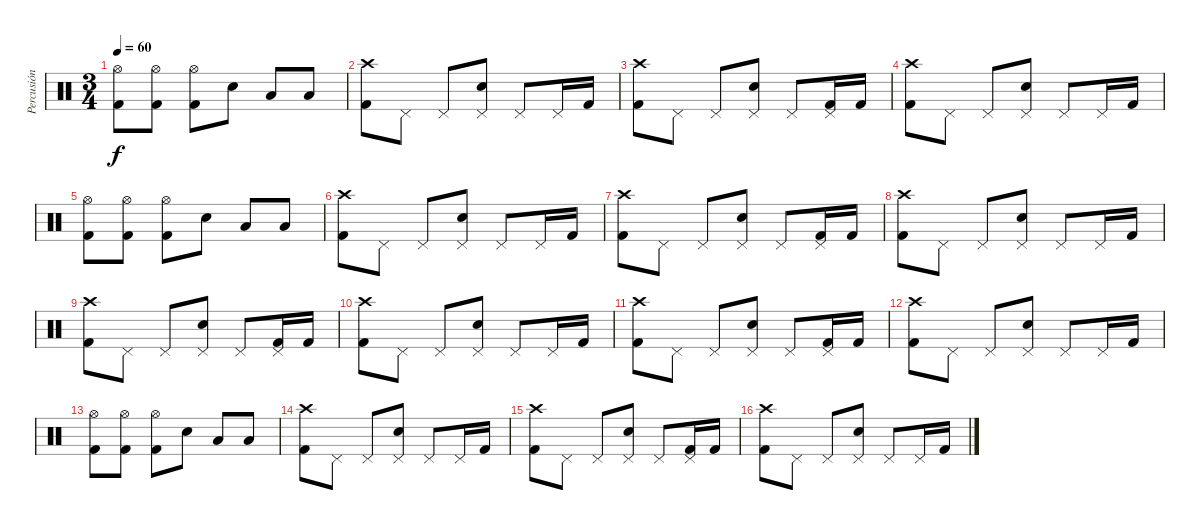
\track ("Percusión" "Percusión") {instrument percussion}
\staff {score}
\articulation defaults
\ts (3 4)
\tempo 60
\clef neutral
\ks c
("Hi-Hat (open)" "Kick (hit) 2").8{dy f} ("Hi-Hat (open)" "Kick (hit) 2").8 ("Hi-Hat (open)" "Kick (hit) 2").8 "Snare (hit) 2".8 "Low Tom (hit)".8 "Low Tom (hit)".8 |
("Kick (hit) 2" "Crash high (hit)").8 "Pedal Hi-Hat (hit)".8 "Pedal Hi-Hat (hit)".8 ("Pedal Hi-Hat (hit)" "Snare (hit) 2").8 "Pedal Hi-Hat (hit)".8 "Pedal Hi-Hat (hit)".16 "Kick (hit) 2".16 |
("Crash high (hit)" "Kick (hit) 2").8 "Pedal Hi-Hat (hit)".8 "Pedal Hi-Hat (hit)".8 ("Pedal Hi-Hat (hit)" "Snare (hit) 2").8 "Pedal Hi-Hat (hit)".8 ("Pedal Hi-Hat (hit)" "Kick (hit) 2").16 "Kick (hit) 2".16 |
("Kick (hit) 2" "Crash high (hit)").8 "Pedal Hi-Hat (hit)".8 "Pedal Hi-Hat (hit)".8 ("Pedal Hi-Hat (hit)" "Snare (hit) 2").8 "Pedal Hi-Hat (hit)".8 "Pedal Hi-Hat (hit)".16 "Kick (hit) 2".16 |
("Hi-Hat (open)" "Kick (hit) 2").8 ("Hi-Hat (open)" "Kick (hit) 2").8 ("Hi-Hat (open)" "Kick (hit) 2").8 "Snare (hit) 2".8 "Low Tom (hit)".8 "Low Tom (hit)".8 |
("Kick (hit) 2" "Crash high (hit)").8 "Pedal Hi-Hat (hit)".8 "Pedal Hi-Hat (hit)".8 ("Pedal Hi-Hat (hit)" "Snare (hit) 2").8 "Pedal Hi-Hat (hit)".8 "Pedal Hi-Hat (hit)".16 "Kick (hit) 2".16 |
("Crash high (hit)" "Kick (hit) 2").8 "Pedal Hi-Hat (hit)".8 "Pedal Hi-Hat (hit)".8 ("Pedal Hi-Hat (hit)" "Snare (hit) 2").8 "Pedal Hi-Hat (hit)".8 ("Pedal Hi-Hat (hit)" "Kick (hit) 2").16 "Kick (hit) 2".16 |
("Kick (hit) 2" "Crash high (hit)").8 "Pedal Hi-Hat (hit)".8 "Pedal Hi-Hat (hit)".8 ("Pedal Hi-Hat (hit)" "Snare (hit) 2").8 "Pedal Hi-Hat (hit)".8 "Pedal Hi-Hat (hit)".16 "Kick (hit) 2".16 |
("Crash high (hit)" "Kick (hit) 2").8 "Pedal Hi-Hat (hit)".8 "Pedal Hi-Hat (hit)".8 ("Pedal Hi-Hat (hit)" "Snare (hit) 2").8 "Pedal Hi-Hat (hit)".8 ("Pedal Hi-Hat (hit)" "Kick (hit) 2").16 "Kick (hit) 2".16 |
("Kick (hit) 2" "Crash high (hit)").8 "Pedal Hi-Hat (hit)".8 "Pedal Hi-Hat (hit)".8 ("Pedal Hi-Hat (hit)" "Snare (hit) 2").8 "Pedal Hi-Hat (hit)".8 "Pedal Hi-Hat (hit)".16 "Kick (hit) 2".16 |
("Crash high (hit)" "Kick (hit) 2").8 "Pedal Hi-Hat (hit)".8 "Pedal Hi-Hat (hit)".8 ("Pedal Hi-Hat (hit)" "Snare (hit) 2").8 "Pedal Hi-Hat (hit)".8 ("Pedal Hi-Hat (hit)" "Kick (hit) 2").16 "Kick (hit) 2".16 |
("Kick (hit) 2" "Crash high (hit)").8 "Pedal Hi-Hat (hit)".8 "Pedal Hi-Hat (hit)".8 ("Pedal Hi-Hat (hit)" "Snare (hit) 2").8 "Pedal Hi-Hat (hit)".8 "Pedal Hi-Hat (hit)".16 "Kick (hit) 2".16 |
("Hi-Hat (open)" "Kick (hit) 2").8 ("Hi-Hat (open)" "Kick (hit) 2").8 ("Hi-Hat (open)" "Kick (hit) 2").8 "Snare (hit) 2".8 "Low Tom (hit)".8 "Low Tom (hit)".8 |
("Kick (hit) 2" "Crash high (hit)").8 "Pedal Hi-Hat (hit)".8 "Pedal Hi-Hat (hit)".8 ("Pedal Hi-Hat (hit)" "Snare (hit) 2").8 "Pedal Hi-Hat (hit)".8 "Pedal Hi-Hat (hit)".16 "Kick (hit) 2".16 |
("Crash high (hit)" "Kick (hit) 2").8 "Pedal Hi-Hat (hit)".8 "Pedal Hi-Hat (hit)".8 ("Pedal Hi-Hat (hit)" "Snare (hit) 2").8 "Pedal Hi-Hat (hit)".8 ("Pedal Hi-Hat (hit)" "Kick (hit) 2").16 "Kick (hit) 2".16 |
("Kick (hit) 2" "Crash high (hit)").8 "Pedal Hi-Hat (hit)".8 "Pedal Hi-Hat (hit)".8 ("Pedal Hi-Hat (hit)" "Snare (hit) 2").8 "Pedal Hi-Hat (hit)".8 "Pedal Hi-Hat (hit)".16 "Kick (hit) 2".16
